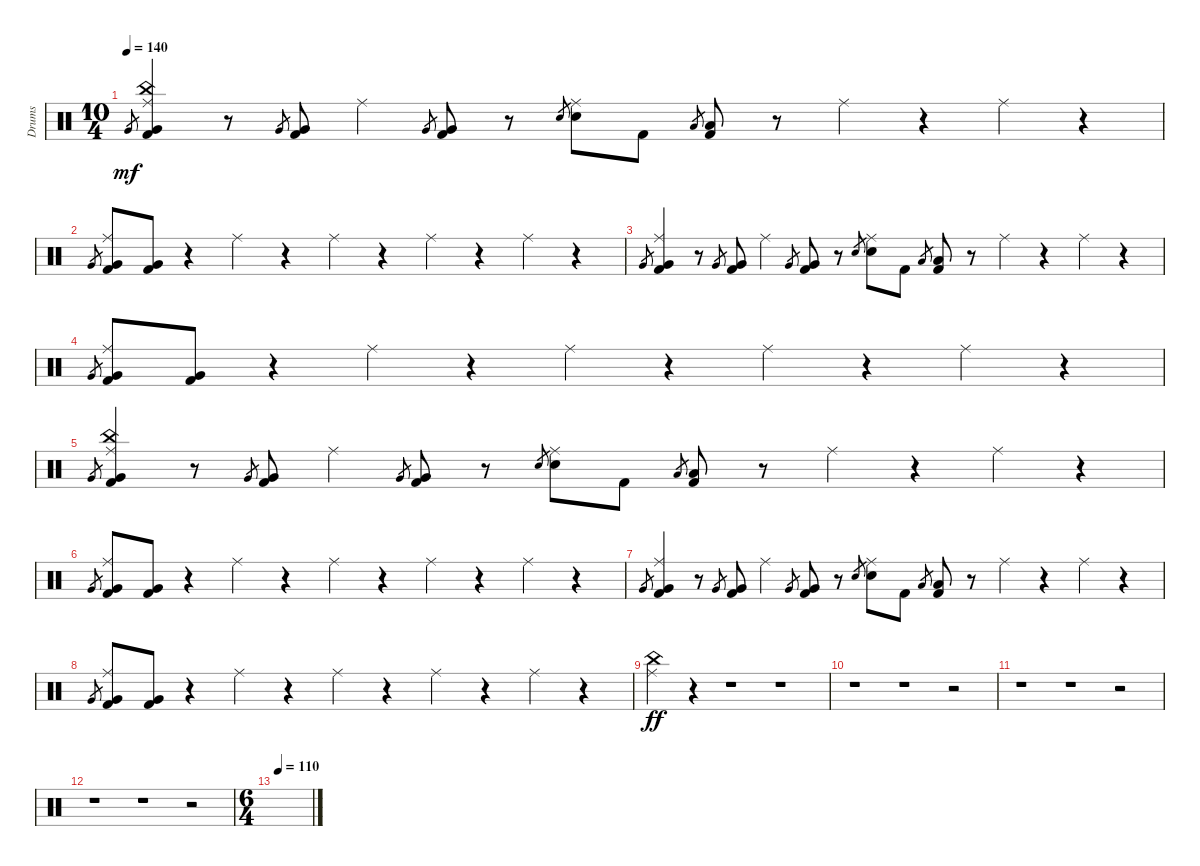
\track ("Drums" "Drums") {instrument percussion}
\staff {score}
\articulation defaults
\ts (10 4)
\tempo 140
\clef neutral
\ks c "Very Low Tom (hit)".8{gr dy mf}
("China (hit)" "Ride (middle)" "Very Low Tom (hit)" "Kick (hit) 2").4 r.8 "Very Low Tom (hit)".8{gr} ("Very Low Tom (hit)" "Kick (hit) 2").8 "Ride (middle)".4 "Very Low Tom (hit)".8{gr} ("Very Low Tom (hit)" "Kick (hit) 2").8 r.8 "Snare (hit) 2".8{gr} ("Ride (middle)" "Snare (hit) 2").8 "Kick (hit) 2".8 "Low Tom (hit)".8{gr} ("Low Tom (hit)" "Kick (hit) 2").8 r.8 "Ride (middle)".4 r.4 "Ride (middle)".4 r.4 |
"Very Low Tom (hit)".8{gr} ("Ride (middle)" "Very Low Tom (hit)" "Kick (hit) 2").8 ("Very Low Tom (hit)" "Kick (hit) 2").8 r.4 "Ride (middle)".4 r.4 "Ride (middle)".4 r.4 "Ride (middle)".4 r.4 "Ride (middle)".4 r.4 |
"Very Low Tom (hit)".8{gr} ("Ride (middle)" "Very Low Tom (hit)" "Kick (hit) 2").4 r.8 "Very Low Tom (hit)".8{gr} ("Very Low Tom (hit)" "Kick (hit) 2").8 "Ride (middle)".4 "Very Low Tom (hit)".8{gr} ("Very Low Tom (hit)" "Kick (hit) 2").8 r.8 "Snare (hit) 2".8{gr} ("Ride (middle)" "Snare (hit) 2").8 "Kick (hit) 2".8 "Low Tom (hit)".8{gr} ("Low Tom (hit)" "Kick (hit) 2").8 r.8 "Ride (middle)".4 r.4 "Ride (middle)".4 r.4 |
"Very Low Tom (hit)".8{gr} ("Ride (middle)" "Very Low Tom (hit)" "Kick (hit) 2").8 ("Very Low Tom (hit)" "Kick (hit) 2").8 r.4 "Ride (middle)".4 r.4 "Ride (middle)".4 r.4 "Ride (middle)".4 r.4 "Ride (middle)".4 r.4 |
"Very Low Tom (hit)".8{gr} ("China (hit)" "Ride (middle)" "Very Low Tom (hit)" "Kick (hit) 2").4 r.8 "Very Low Tom (hit)".8{gr} ("Very Low Tom (hit)" "Kick (hit) 2").8 "Ride (middle)".4 "Very Low Tom (hit)".8{gr} ("Very Low Tom (hit)" "Kick (hit) 2").8 r.8 "Snare (hit) 2".8{gr} ("Ride (middle)" "Snare (hit) 2").8 "Kick (hit) 2".8 "Low Tom (hit)".8{gr} ("Low Tom (hit)" "Kick (hit) 2").8 r.8 "Ride (middle)".4 r.4 "Ride (middle)".4 r.4 |
"Very Low Tom (hit)".8{gr} ("Ride (middle)" "Very Low Tom (hit)" "Kick (hit) 2").8 ("Very Low Tom (hit)" "Kick (hit) 2").8 r.4 "Ride (middle)".4 r.4 "Ride (middle)".4 r.4 "Ride (middle)".4 r.4 "Ride (middle)".4 r.4 |
"Very Low Tom (hit)".8{gr} ("Ride (middle)" "Very Low Tom (hit)" "Kick (hit) 2").4 r.8 "Very Low Tom (hit)".8{gr} ("Very Low Tom (hit)" "Kick (hit) 2").8 "Ride (middle)".4 "Very Low Tom (hit)".8{gr} ("Very Low Tom (hit)" "Kick (hit) 2").8 r.8 "Snare (hit) 2".8{gr} ("Ride (middle)" "Snare (hit) 2").8 "Kick (hit) 2".8 "Low Tom (hit)".8{gr} ("Low Tom (hit)" "Kick (hit) 2").8 r.8 "Ride (middle)".4 r.4 "Ride (middle)".4 r.4 |
"Very Low Tom (hit)".8{gr} ("Ride (middle)" "Very Low Tom (hit)" "Kick (hit) 2").8 ("Very Low Tom (hit)" "Kick (hit) 2").8 r.4 "Ride (middle)".4 r.4 "Ride (middle)".4 r.4 "Ride (middle)".4 r.4 "Ride (middle)".4 r.4 |
("Ride (middle)" "China (hit)").4{dy ff} r.4 r.1 r.1 |
r.1 r.1 r.2 |
r.1 r.1 r.2 |
r.1 r.1 r.2 |
\ts (6 4)
\tempo (110 0.08333333333333333)
